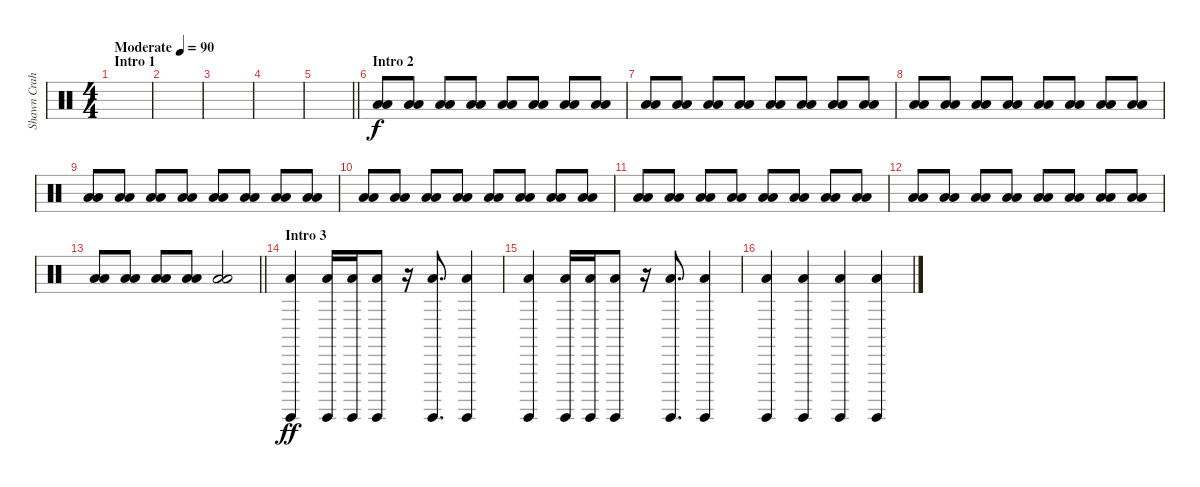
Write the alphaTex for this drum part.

\track ("Shawn Crahan" "Shawn Crah") {instrument percussion}
\staff {score}
\articulation defaults
\ts (4 4)
\section ("" "Intro 1")
\tempo (90 "Moderate")
\clef neutral
\ks c
|
|
|
|
\barLineRight lightlight
|
\section ("" "Intro 2")
("Low Floor Tom (hit)" "Low Floor Tom (hit)").8 ("Low Floor Tom (hit)" "Low Floor Tom (hit)").8 ("Low Floor Tom (hit)" "Low Floor Tom (hit)").8 ("Low Floor Tom (hit)" "Low Floor Tom (hit)").8 ("Low Floor Tom (hit)" "Low Floor Tom (hit)").8 ("Low Floor Tom (hit)" "Low Floor Tom (hit)").8 ("Low Floor Tom (hit)" "Low Floor Tom (hit)").8 ("Low Floor Tom (hit)" "Low Floor Tom (hit)").8 |
("Low Floor Tom (hit)" "Low Floor Tom (hit)").8 ("Low Floor Tom (hit)" "Low Floor Tom (hit)").8 ("Low Floor Tom (hit)" "Low Floor Tom (hit)").8 ("Low Floor Tom (hit)" "Low Floor Tom (hit)").8 ("Low Floor Tom (hit)" "Low Floor Tom (hit)").8 ("Low Floor Tom (hit)" "Low Floor Tom (hit)").8 ("Low Floor Tom (hit)" "Low Floor Tom (hit)").8 ("Low Floor Tom (hit)" "Low Floor Tom (hit)").8 |
("Low Floor Tom (hit)" "Low Floor Tom (hit)").8 ("Low Floor Tom (hit)" "Low Floor Tom (hit)").8 ("Low Floor Tom (hit)" "Low Floor Tom (hit)").8 ("Low Floor Tom (hit)" "Low Floor Tom (hit)").8 ("Low Floor Tom (hit)" "Low Floor Tom (hit)").8 ("Low Floor Tom (hit)" "Low Floor Tom (hit)").8 ("Low Floor Tom (hit)" "Low Floor Tom (hit)").8 ("Low Floor Tom (hit)" "Low Floor Tom (hit)").8 |
("Low Floor Tom (hit)" "Low Floor Tom (hit)").8 ("Low Floor Tom (hit)" "Low Floor Tom (hit)").8 ("Low Floor Tom (hit)" "Low Floor Tom (hit)").8 ("Low Floor Tom (hit)" "Low Floor Tom (hit)").8 ("Low Floor Tom (hit)" "Low Floor Tom (hit)").8 ("Low Floor Tom (hit)" "Low Floor Tom (hit)").8 ("Low Floor Tom (hit)" "Low Floor Tom (hit)").8 ("Low Floor Tom (hit)" "Low Floor Tom (hit)").8 |
("Low Floor Tom (hit)" "Low Floor Tom (hit)").8 ("Low Floor Tom (hit)" "Low Floor Tom (hit)").8 ("Low Floor Tom (hit)" "Low Floor Tom (hit)").8 ("Low Floor Tom (hit)" "Low Floor Tom (hit)").8 ("Low Floor Tom (hit)" "Low Floor Tom (hit)").8 ("Low Floor Tom (hit)" "Low Floor Tom (hit)").8 ("Low Floor Tom (hit)" "Low Floor Tom (hit)").8 ("Low Floor Tom (hit)" "Low Floor Tom (hit)").8 |
("Low Floor Tom (hit)" "Low Floor Tom (hit)").8 ("Low Floor Tom (hit)" "Low Floor Tom (hit)").8 ("Low Floor Tom (hit)" "Low Floor Tom (hit)").8 ("Low Floor Tom (hit)" "Low Floor Tom (hit)").8 ("Low Floor Tom (hit)" "Low Floor Tom (hit)").8 ("Low Floor Tom (hit)" "Low Floor Tom (hit)").8 ("Low Floor Tom (hit)" "Low Floor Tom (hit)").8 ("Low Floor Tom (hit)" "Low Floor Tom (hit)").8 |
("Low Floor Tom (hit)" "Low Floor Tom (hit)").8 ("Low Floor Tom (hit)" "Low Floor Tom (hit)").8 ("Low Floor Tom (hit)" "Low Floor Tom (hit)").8 ("Low Floor Tom (hit)" "Low Floor Tom (hit)").8 ("Low Floor Tom (hit)" "Low Floor Tom (hit)").8 ("Low Floor Tom (hit)" "Low Floor Tom (hit)").8 ("Low Floor Tom (hit)" "Low Floor Tom (hit)").8 ("Low Floor Tom (hit)" "Low Floor Tom (hit)").8 |
\barLineRight lightlight
("Low Floor Tom (hit)" "Low Floor Tom (hit)").8 ("Low Floor Tom (hit)" "Low Floor Tom (hit)").8 ("Low Floor Tom (hit)" "Low Floor Tom (hit)").8 ("Low Floor Tom (hit)" "Low Floor Tom (hit)").8 ("Low Floor Tom (hit)" "Low Floor Tom (hit)").2 |
\section ("" "Intro 3")
("Surdo (hit)" "Low Floor Tom (hit)").4{dy ff} ("Surdo (hit)" "Low Floor Tom (hit)").16 ("Surdo (hit)" "Low Floor Tom (hit)").16 ("Surdo (hit)" "Low Floor Tom (hit)").8 r.16 ("Surdo (hit)" "Low Floor Tom (hit)").8{d} ("Surdo (hit)" "Low Floor Tom (hit)").4 |
("Surdo (hit)" "Low Floor Tom (hit)").4 ("Surdo (hit)" "Low Floor Tom (hit)").16 ("Surdo (hit)" "Low Floor Tom (hit)").16 ("Surdo (hit)" "Low Floor Tom (hit)").8 r.16 ("Surdo (hit)" "Low Floor Tom (hit)").8{d} ("Surdo (hit)" "Low Floor Tom (hit)").4 |
("Surdo (hit)" "Low Floor Tom (hit)").4 ("Surdo (hit)" "Low Floor Tom (hit)").4 ("Surdo (hit)" "Low Floor Tom (hit)").4 ("Surdo (hit)" "Low Floor Tom (hit)").4
